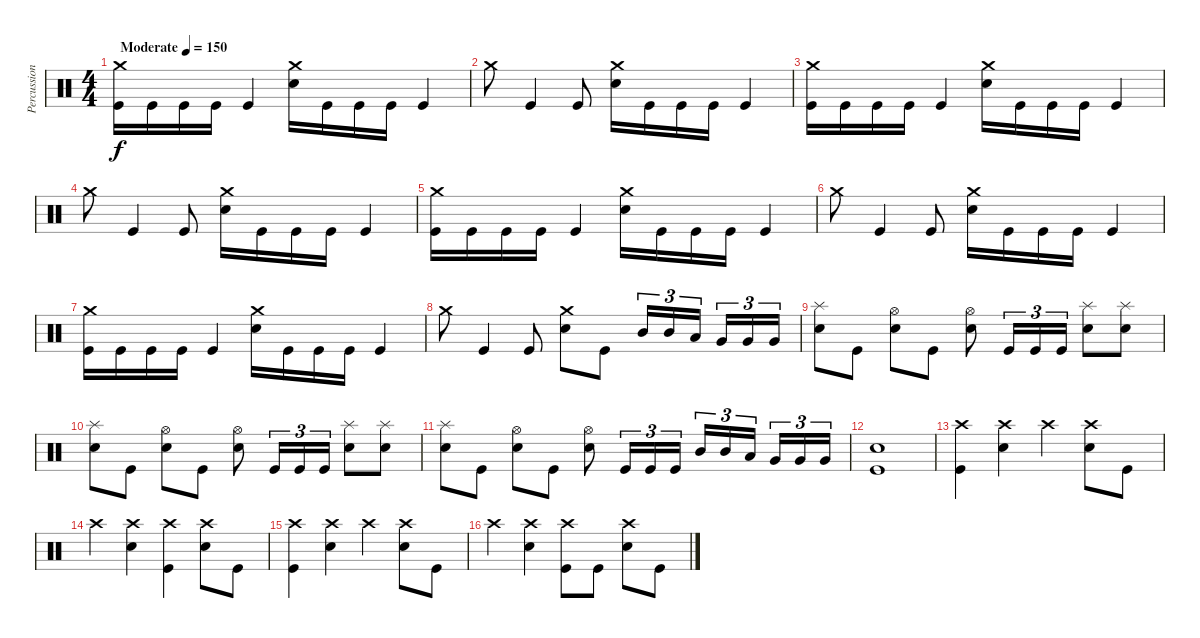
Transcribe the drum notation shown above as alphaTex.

\track ("Percussion" "Percussion") {instrument percussion}
\staff {score}
\articulation defaults
\ts (4 4)
\tempo (150 "Moderate")
\clef neutral
\ks c
("Crash medium (hit)" "Kick (hit)").16{dy f} "Kick (hit)".16 "Kick (hit)".16 "Kick (hit)".16 "Kick (hit)".4 ("Crash medium (hit)" "Electric Snare (hit)").16 "Kick (hit)".16 "Kick (hit)".16 "Kick (hit)".16 "Kick (hit)".4 |
"Crash medium (hit)".8 "Kick (hit)".4 "Kick (hit)".8 ("Crash medium (hit)" "Electric Snare (hit)").16 "Kick (hit)".16 "Kick (hit)".16 "Kick (hit)".16 "Kick (hit)".4 |
("Crash medium (hit)" "Kick (hit)").16 "Kick (hit)".16 "Kick (hit)".16 "Kick (hit)".16 "Kick (hit)".4 ("Crash medium (hit)" "Electric Snare (hit)").16 "Kick (hit)".16 "Kick (hit)".16 "Kick (hit)".16 "Kick (hit)".4 |
"Crash medium (hit)".8 "Kick (hit)".4 "Kick (hit)".8 ("Crash medium (hit)" "Electric Snare (hit)").16 "Kick (hit)".16 "Kick (hit)".16 "Kick (hit)".16 "Kick (hit)".4 |
("Crash medium (hit)" "Kick (hit)").16 "Kick (hit)".16 "Kick (hit)".16 "Kick (hit)".16 "Kick (hit)".4 ("Crash medium (hit)" "Electric Snare (hit)").16 "Kick (hit)".16 "Kick (hit)".16 "Kick (hit)".16 "Kick (hit)".4 |
"Crash medium (hit)".8 "Kick (hit)".4 "Kick (hit)".8 ("Crash medium (hit)" "Electric Snare (hit)").16 "Kick (hit)".16 "Kick (hit)".16 "Kick (hit)".16 "Kick (hit)".4 |
("Crash medium (hit)" "Kick (hit)").16 "Kick (hit)".16 "Kick (hit)".16 "Kick (hit)".16 "Kick (hit)".4 ("Crash medium (hit)" "Electric Snare (hit)").16 "Kick (hit)".16 "Kick (hit)".16 "Kick (hit)".16 "Kick (hit)".4 |
"Crash medium (hit)".8 "Kick (hit)".4 "Kick (hit)".8 ("Crash medium (hit)" "Electric Snare (hit)").8 "Kick (hit)".8 "Mid Tom (hit)".16{tu (3 2)} "Mid Tom (hit)".16{tu (3 2)} "Low Tom (hit)".16{tu (3 2) beam splitsecondary} "Very Low Tom (hit)".16{tu (3 2)} "Very Low Tom (hit)".16{tu (3 2)} "Very Low Tom (hit)".16{tu (3 2)} |
("Splash (hit)" "Electric Snare (hit)").8 "Kick (hit)".8 ("Hi-Hat (open)" "Electric Snare (hit)").8 "Kick (hit)".8 ("Hi-Hat (open)" "Electric Snare (hit)").8 "Kick (hit)".16{tu (3 2)} "Kick (hit)".16{tu (3 2)} "Kick (hit)".16{tu (3 2)} ("Splash (hit)" "Electric Snare (hit)").8 ("Splash (hit)" "Electric Snare (hit)").8 |
("Splash (hit)" "Electric Snare (hit)").8 "Kick (hit)".8 ("Hi-Hat (open)" "Electric Snare (hit)").8 "Kick (hit)".8 ("Hi-Hat (open)" "Electric Snare (hit)").8 "Kick (hit)".16{tu (3 2)} "Kick (hit)".16{tu (3 2)} "Kick (hit)".16{tu (3 2)} ("Splash (hit)" "Electric Snare (hit)").8 ("Splash (hit)" "Electric Snare (hit)").8 |
("Splash (hit)" "Electric Snare (hit)").8 "Kick (hit)".8 ("Hi-Hat (open)" "Electric Snare (hit)").8 "Kick (hit)".8 ("Hi-Hat (open)" "Electric Snare (hit)").8 "Kick (hit)".16{tu (3 2)} "Kick (hit)".16{tu (3 2)} "Kick (hit)".16{tu (3 2)} "Mid Tom (hit)".16{tu (3 2)} "Mid Tom (hit)".16{tu (3 2)} "Low Tom (hit)".16{tu (3 2) beam splitsecondary} "Very Low Tom (hit)".16{tu (3 2)} "Very Low Tom (hit)".16{tu (3 2)} "Very Low Tom (hit)".16{tu (3 2)} |
("Electric Snare (hit)" "Kick (hit)").1 |
("Crash high (hit)" "Kick (hit)").4 ("Crash high (hit)" "Electric Snare (hit)").4 "Crash high (hit)".4 ("Crash high (hit)" "Electric Snare (hit)").8 "Kick (hit)".8 |
"Crash high (hit)".4 ("Crash high (hit)" "Electric Snare (hit)").4 ("Crash high (hit)" "Kick (hit)").4 ("Crash high (hit)" "Electric Snare (hit)").8 "Kick (hit)".8 |
("Crash high (hit)" "Kick (hit)").4 ("Crash high (hit)" "Electric Snare (hit)").4 "Crash high (hit)".4 ("Crash high (hit)" "Electric Snare (hit)").8 "Kick (hit)".8 |
"Crash high (hit)".4 ("Crash high (hit)" "Electric Snare (hit)").4 ("Crash high (hit)" "Kick (hit)").8 "Kick (hit)".8 ("Crash high (hit)" "Electric Snare (hit)").8 "Kick (hit)".8
